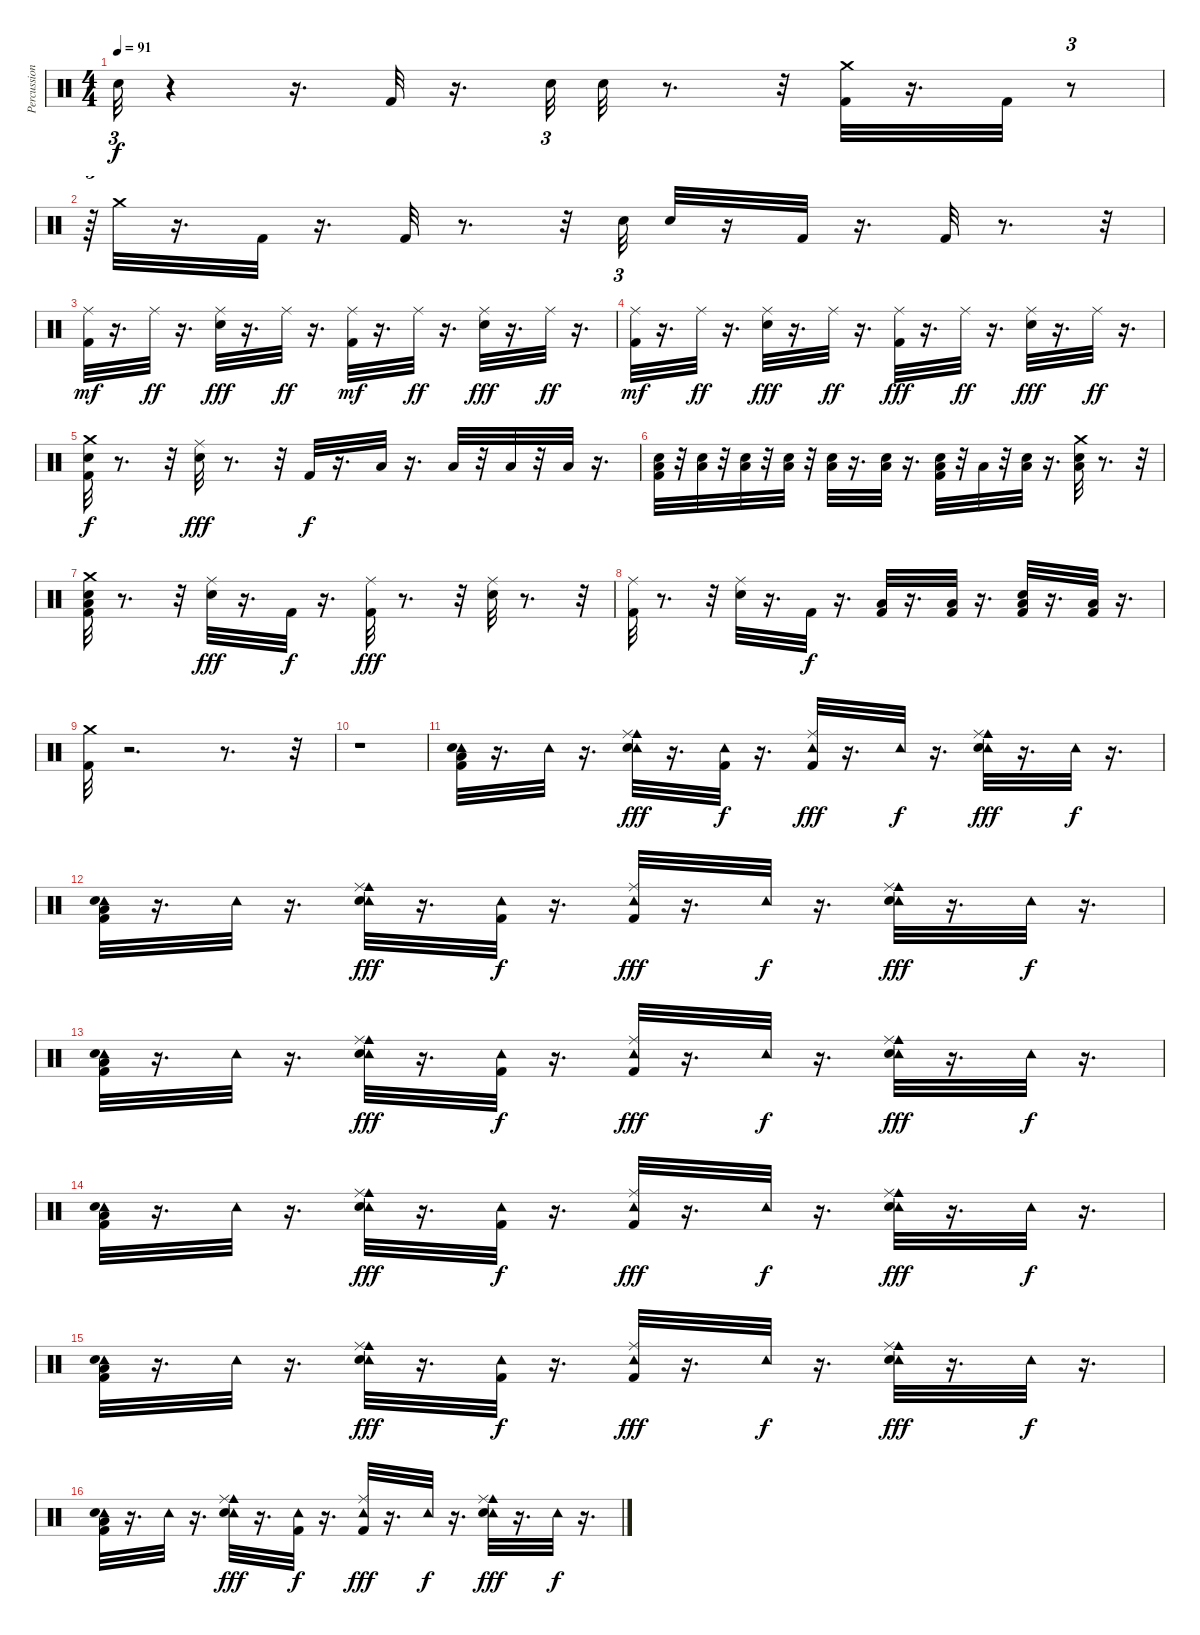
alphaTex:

\track ("Percussion" "Percussion") {instrument percussion}
\staff {score}
\articulation defaults
\ts (4 4)
\tempo 91
\clef neutral
\ks c "Snare (hit)"{t}.32{tu (3 2) dy f}
r.4 r.16{d} "Kick (hit) 2".32 r.16{d} "Snare (hit) 2".32{tu (3 2)} "Snare (hit) 2".32 r.8{d} r.32 ("Kick (hit) 2" "Crash medium (hit)").32 r.16{d} "Kick (hit) 2".32 r.8{tu (3 2)} |
r.64{tu (3 2)} "Crash medium (hit)".32 r.16{d} "Kick (hit) 2".32 r.16{d} "Kick (hit) 2".32 r.8{d} r.32 "Snare (hit) 2".32{tu (3 2)} "Snare (hit) 2".32 r.16 "Kick (hit) 2".32 r.16{d} "Kick (hit) 2".32 r.8{d} r.32 |
("Ride (middle)" "Kick (hit) 2").32{dy mf} r.16{d} "Ride (middle)".32{dy ff} r.16{d} ("Snare (hit) 2" "Ride (middle)").32{dy fff} r.16{d} "Ride (middle)".32{dy ff} r.16{d} ("Ride (middle)" "Kick (hit) 2").32{dy mf} r.16{d} "Ride (middle)".32{dy ff} r.16{d} ("Snare (hit) 2" "Ride (middle)").32{dy fff} r.16{d} "Ride (middle)".32{dy ff} r.16{d} |
("Ride (middle)" "Kick (hit) 2").32{dy mf} r.16{d} "Ride (middle)".32{dy ff} r.16{d} ("Snare (hit) 2" "Ride (middle)").32{dy fff} r.16{d} "Ride (middle)".32{dy ff} r.16{d} ("Kick (hit) 2" "Ride (middle)").32{dy fff} r.16{d} "Ride (middle)".32{dy ff} r.16{d} ("Snare (hit) 2" "Ride (middle)").32{dy fff} r.16{d} "Ride (middle)".32{dy ff} r.16{d} |
("Snare (hit) 2" "Kick (hit) 2" "Crash medium (hit)").32{dy f} r.8{d} r.32 ("Ride (middle)" "Snare (hit) 2").32{dy fff} r.8{d} r.32 "Kick (hit) 2".32{dy f} r.16{d} "Low Tom (hit)".32 r.16{d} "Low Tom (hit)".32 r.32 "Low Tom (hit)".32 r.32 "Low Tom (hit)".32 r.16{d} |
("Kick (hit) 2" "Snare (hit) 2" "Low Tom (hit)").32 r.32 ("Snare (hit) 2" "Low Tom (hit)").32 r.32 ("Snare (hit) 2" "Low Tom (hit)").32 r.32 ("Snare (hit) 2" "Low Tom (hit)").32 r.32 ("Snare (hit) 2" "Low Tom (hit)").32 r.16{d} ("Snare (hit) 2" "Low Tom (hit)").32 r.16{d} ("Kick (hit) 2" "Snare (hit) 2" "Low Tom (hit)").32 r.32 "Low Tom (hit)".32 r.32 ("Low Tom (hit)" "Snare (hit) 2").32 r.16{d} ("Snare (hit) 2" "Low Tom (hit)" "Crash medium (hit)").32 r.8{d} r.32 |
("Crash medium (hit)" "Snare (hit) 2" "Kick (hit) 2" "Low Tom (hit)").32 r.8{d} r.32 ("Snare (hit) 2" "Ride (middle)").32{dy fff} r.16{d} "Kick (hit) 2".32{dy f} r.16{d} ("Kick (hit) 2" "Ride (middle)").32{dy fff} r.8{d} r.32 ("Snare (hit) 2" "Ride (middle)").32 r.8{d} r.32 |
("Kick (hit) 2" "Ride (middle)").32 r.8{d} r.32 ("Snare (hit) 2" "Ride (middle)").32 r.16{d} "Kick (hit) 2".32{dy f} r.16{d} ("Low Tom (hit)" "Kick (hit) 2").32 r.16{d} ("Kick (hit) 2" "Low Tom (hit)").32 r.16{d} ("Kick (hit) 2" "Low Tom (hit)" "Snare (hit) 2").32 r.16{d} ("Kick (hit) 2" "Low Tom (hit)").32 r.16{d} |
("Crash medium (hit)" "Kick (hit) 2").32 r.2{d} r.8{d} r.32 |
r.1 |
("Tambourine (hit)" "Low Tom (hit)" "Kick (hit) 2" "Snare (hit) 2").32 r.16{d} "Tambourine (hit)".32 r.16{d} ("Cowbell medium (hit)" "Tambourine (hit)" "Snare (hit) 2" "Ride (middle)").32{dy fff} r.16{d} ("Tambourine (hit)" "Kick (hit) 2").32{dy f} r.16{d} ("Tambourine (hit)" "Kick (hit) 2" "Ride (middle)").32{dy fff} r.16{d} "Tambourine (hit)".32{dy f} r.16{d} ("Tambourine (hit)" "Cowbell medium (hit)" "Snare (hit) 2" "Ride (middle)").32{dy fff} r.16{d} "Tambourine (hit)".32{dy f} r.16{d} |
("Tambourine (hit)" "Low Tom (hit)" "Kick (hit) 2" "Snare (hit) 2").32 r.16{d} "Tambourine (hit)".32 r.16{d} ("Cowbell medium (hit)" "Tambourine (hit)" "Snare (hit) 2" "Ride (middle)").32{dy fff} r.16{d} ("Tambourine (hit)" "Kick (hit) 2").32{dy f} r.16{d} ("Tambourine (hit)" "Kick (hit) 2" "Ride (middle)").32{dy fff} r.16{d} "Tambourine (hit)".32{dy f} r.16{d} ("Tambourine (hit)" "Cowbell medium (hit)" "Snare (hit) 2" "Ride (middle)").32{dy fff} r.16{d} "Tambourine (hit)".32{dy f} r.16{d} |
("Tambourine (hit)" "Low Tom (hit)" "Kick (hit) 2" "Snare (hit) 2").32 r.16{d} "Tambourine (hit)".32 r.16{d} ("Cowbell medium (hit)" "Tambourine (hit)" "Snare (hit) 2" "Ride (middle)").32{dy fff} r.16{d} ("Tambourine (hit)" "Kick (hit) 2").32{dy f} r.16{d} ("Tambourine (hit)" "Kick (hit) 2" "Ride (middle)").32{dy fff} r.16{d} "Tambourine (hit)".32{dy f} r.16{d} ("Tambourine (hit)" "Cowbell medium (hit)" "Snare (hit) 2" "Ride (middle)").32{dy fff} r.16{d} "Tambourine (hit)".32{dy f} r.16{d} |
("Tambourine (hit)" "Low Tom (hit)" "Kick (hit) 2" "Snare (hit) 2").32 r.16{d} "Tambourine (hit)".32 r.16{d} ("Cowbell medium (hit)" "Tambourine (hit)" "Snare (hit) 2" "Ride (middle)").32{dy fff} r.16{d} ("Tambourine (hit)" "Kick (hit) 2").32{dy f} r.16{d} ("Tambourine (hit)" "Kick (hit) 2" "Ride (middle)").32{dy fff} r.16{d} "Tambourine (hit)".32{dy f} r.16{d} ("Tambourine (hit)" "Cowbell medium (hit)" "Snare (hit) 2" "Ride (middle)").32{dy fff} r.16{d} "Tambourine (hit)".32{dy f} r.16{d} |
("Tambourine (hit)" "Low Tom (hit)" "Kick (hit) 2" "Snare (hit) 2").32 r.16{d} "Tambourine (hit)".32 r.16{d} ("Cowbell medium (hit)" "Tambourine (hit)" "Snare (hit) 2" "Ride (middle)").32{dy fff} r.16{d} ("Tambourine (hit)" "Kick (hit) 2").32{dy f} r.16{d} ("Tambourine (hit)" "Kick (hit) 2" "Ride (middle)").32{dy fff} r.16{d} "Tambourine (hit)".32{dy f} r.16{d} ("Tambourine (hit)" "Cowbell medium (hit)" "Snare (hit) 2" "Ride (middle)").32{dy fff} r.16{d} "Tambourine (hit)".32{dy f} r.16{d} |
("Tambourine (hit)" "Low Tom (hit)" "Kick (hit) 2" "Snare (hit) 2").32 r.16{d} "Tambourine (hit)".32 r.16{d} ("Cowbell medium (hit)" "Tambourine (hit)" "Snare (hit) 2" "Ride (middle)").32{dy fff} r.16{d} ("Tambourine (hit)" "Kick (hit) 2").32{dy f} r.16{d} ("Tambourine (hit)" "Kick (hit) 2" "Ride (middle)").32{dy fff} r.16{d} "Tambourine (hit)".32{dy f} r.16{d} ("Tambourine (hit)" "Cowbell medium (hit)" "Snare (hit) 2" "Ride (middle)").32{dy fff} r.16{d} "Tambourine (hit)".32{dy f} r.16{d}
